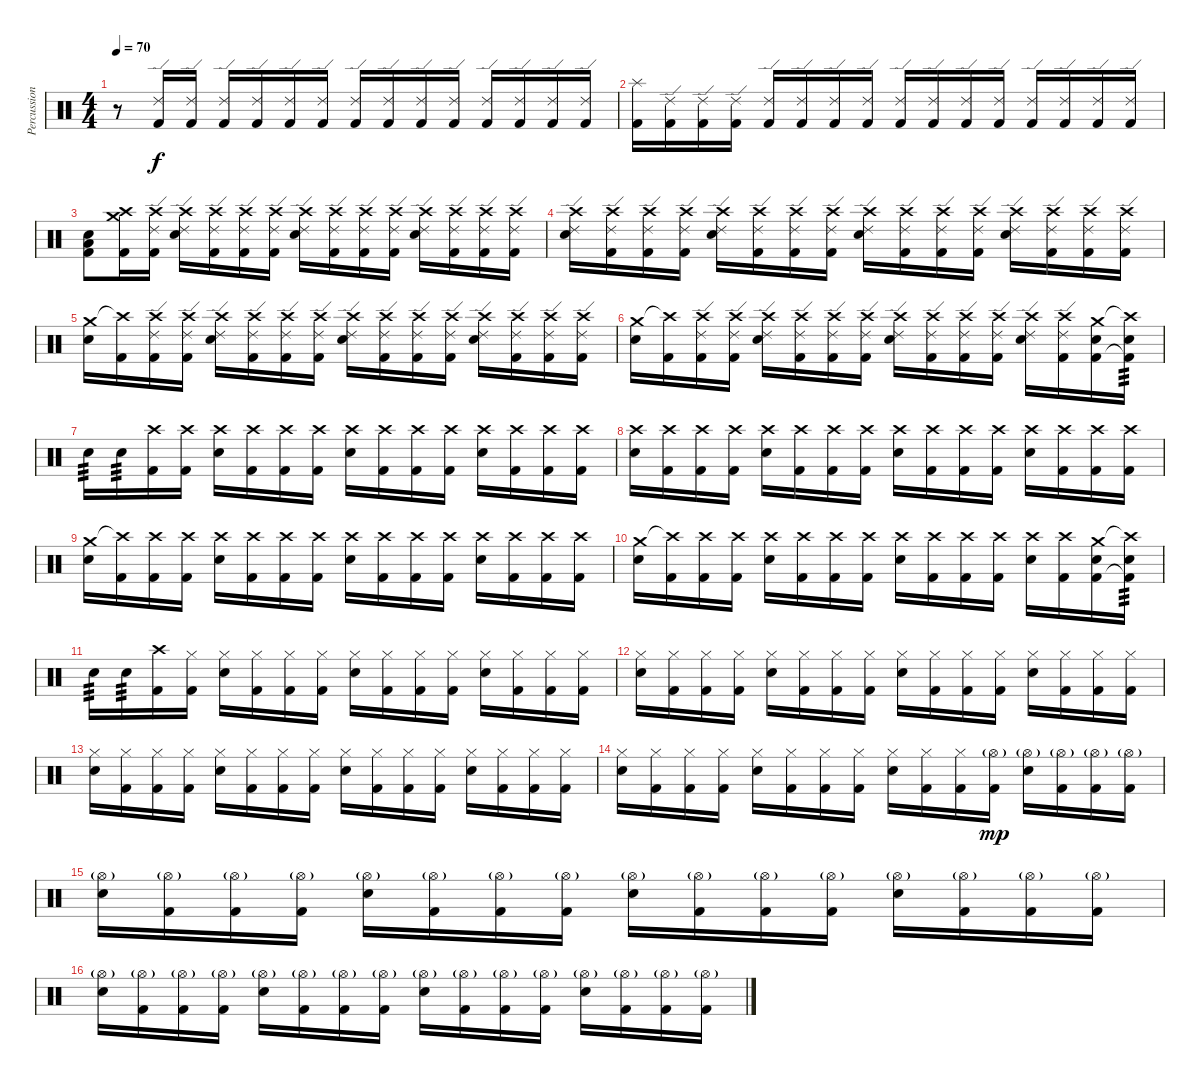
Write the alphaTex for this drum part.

\track ("Percussion" "Percussion") {instrument percussion}
\staff {score}
\articulation defaults
\ts (4 4)
\tempo 70
\clef neutral
\ks c
r.8{dy f} ("Ride (edge) 2" "Kick (hit) 2").16 ("Ride (edge) 2" "Kick (hit) 2").16 ("Ride (edge) 2" "Kick (hit) 2").16 ("Ride (edge) 2" "Kick (hit) 2").16 ("Ride (edge) 2" "Kick (hit) 2").16 ("Ride (edge) 2" "Kick (hit) 2").16 ("Ride (edge) 2" "Kick (hit) 2").16 ("Ride (edge) 2" "Kick (hit) 2").16 ("Ride (edge) 2" "Kick (hit) 2").16 ("Ride (edge) 2" "Kick (hit) 2").16 ("Ride (edge) 2" "Kick (hit) 2").16 ("Ride (edge) 2" "Kick (hit) 2").16 ("Ride (edge) 2" "Kick (hit) 2").16 ("Ride (edge) 2" "Kick (hit) 2").16 |
("Splash (hit)" "Kick (hit) 2").16 ("Ride (edge) 2" "Kick (hit) 2").16 ("Ride (edge) 2" "Kick (hit) 2").16 ("Ride (edge) 2" "Kick (hit) 2").16 ("Ride (edge) 2" "Kick (hit) 2").16 ("Ride (edge) 2" "Kick (hit) 2").16 ("Ride (edge) 2" "Kick (hit) 2").16 ("Ride (edge) 2" "Kick (hit) 2").16 ("Ride (edge) 2" "Kick (hit) 2").16 ("Ride (edge) 2" "Kick (hit) 2").16 ("Ride (edge) 2" "Kick (hit) 2").16 ("Ride (edge) 2" "Kick (hit) 2").16 ("Ride (edge) 2" "Kick (hit) 2").16 ("Ride (edge) 2" "Kick (hit) 2").16 ("Ride (edge) 2" "Kick (hit) 2").16 ("Ride (edge) 2" "Kick (hit) 2").16 |
("Low Floor Tom (hit)" "Electric Snare (hit)" "Kick (hit) 2").8 ("Crash high (hit)" "Crash medium (hit)" "Kick (hit) 2").16 ("Crash high (hit)" "Ride (edge) 2" "Kick (hit) 2").16 ("Crash high (hit)" "Ride (edge) 2" "Electric Snare (hit)").16 ("Crash high (hit)" "Ride (edge) 2" "Kick (hit) 2").16 ("Crash high (hit)" "Ride (edge) 2" "Kick (hit) 2").16 ("Crash high (hit)" "Ride (edge) 2" "Kick (hit) 2").16 ("Crash high (hit)" "Ride (edge) 2" "Electric Snare (hit)").16 ("Crash high (hit)" "Ride (edge) 2" "Kick (hit) 2").16 ("Crash high (hit)" "Ride (edge) 2" "Kick (hit) 2").16 ("Crash high (hit)" "Ride (edge) 2" "Kick (hit) 2").16 ("Crash high (hit)" "Ride (edge) 2" "Electric Snare (hit)").16 ("Crash high (hit)" "Ride (edge) 2" "Kick (hit) 2").16 ("Crash high (hit)" "Ride (edge) 2" "Kick (hit) 2").16 ("Crash high (hit)" "Ride (edge) 2" "Kick (hit) 2").16 |
("Crash high (hit)" "Ride (edge) 2" "Electric Snare (hit)").16 ("Crash high (hit)" "Ride (edge) 2" "Kick (hit) 2").16 ("Crash high (hit)" "Ride (edge) 2" "Kick (hit) 2").16 ("Crash high (hit)" "Ride (edge) 2" "Kick (hit) 2").16 ("Crash high (hit)" "Ride (edge) 2" "Electric Snare (hit)").16 ("Crash high (hit)" "Ride (edge) 2" "Kick (hit) 2").16 ("Crash high (hit)" "Ride (edge) 2" "Kick (hit) 2").16 ("Crash high (hit)" "Ride (edge) 2" "Kick (hit) 2").16 ("Crash high (hit)" "Ride (edge) 2" "Electric Snare (hit)").16 ("Crash high (hit)" "Ride (edge) 2" "Kick (hit) 2").16 ("Crash high (hit)" "Ride (edge) 2" "Kick (hit) 2").16 ("Crash high (hit)" "Ride (edge) 2" "Kick (hit) 2").16 ("Crash high (hit)" "Ride (edge) 2" "Electric Snare (hit)").16 ("Crash high (hit)" "Ride (edge) 2" "Kick (hit) 2").16 ("Crash high (hit)" "Ride (edge) 2" "Kick (hit) 2").16 ("Crash high (hit)" "Ride (edge) 2" "Kick (hit) 2").16 |
("Crash medium (hit)" "Electric Snare (hit)").16 ("Crash high (hit)"{t} "Kick (hit) 2").16 ("Crash high (hit)" "Ride (edge) 2" "Kick (hit) 2").16 ("Crash high (hit)" "Ride (edge) 2" "Kick (hit) 2").16 ("Crash high (hit)" "Ride (edge) 2" "Electric Snare (hit)").16 ("Crash high (hit)" "Ride (edge) 2" "Kick (hit) 2").16 ("Crash high (hit)" "Ride (edge) 2" "Kick (hit) 2").16 ("Crash high (hit)" "Ride (edge) 2" "Kick (hit) 2").16 ("Crash high (hit)" "Ride (edge) 2" "Electric Snare (hit)").16 ("Crash high (hit)" "Ride (edge) 2" "Kick (hit) 2").16 ("Crash high (hit)" "Ride (edge) 2" "Kick (hit) 2").16 ("Crash high (hit)" "Ride (edge) 2" "Kick (hit) 2").16 ("Crash high (hit)" "Ride (edge) 2" "Electric Snare (hit)").16 ("Crash high (hit)" "Ride (edge) 2" "Kick (hit) 2").16 ("Crash high (hit)" "Ride (edge) 2" "Kick (hit) 2").16 ("Crash high (hit)" "Ride (edge) 2" "Kick (hit) 2").16 |
("Crash medium (hit)" "Electric Snare (hit)").16 ("Crash high (hit)"{t} "Kick (hit) 2").16 ("Crash high (hit)" "Ride (edge) 2" "Kick (hit) 2").16 ("Crash high (hit)" "Ride (edge) 2" "Kick (hit) 2").16 ("Crash high (hit)" "Ride (edge) 2" "Electric Snare (hit)").16 ("Crash high (hit)" "Ride (edge) 2" "Kick (hit) 2").16 ("Crash high (hit)" "Ride (edge) 2" "Kick (hit) 2").16 ("Crash high (hit)" "Ride (edge) 2" "Kick (hit) 2").16 ("Crash high (hit)" "Ride (edge) 2" "Electric Snare (hit)").16 ("Crash high (hit)" "Ride (edge) 2" "Kick (hit) 2").16 ("Crash high (hit)" "Ride (edge) 2" "Kick (hit) 2").16 ("Crash high (hit)" "Ride (edge) 2" "Kick (hit) 2").16 ("Crash high (hit)" "Ride (edge) 2" "Electric Snare (hit)").16 ("Crash high (hit)" "Ride (edge) 2" "Kick (hit) 2").16 ("Crash medium (hit)" "Electric Snare (hit)" "Kick (hit) 2").16 ("Crash high (hit)"{t} "Electric Snare (hit)" "Kick (hit) 2"{t}).16{tp 3} |
"Electric Snare (hit)".16{tp 3} "Electric Snare (hit)".16{tp 3} ("Crash high (hit)" "Kick (hit) 2").16 ("Crash high (hit)" "Kick (hit) 2").16 ("Crash high (hit)" "Electric Snare (hit)").16 ("Crash high (hit)" "Kick (hit) 2").16 ("Crash high (hit)" "Kick (hit) 2").16 ("Crash high (hit)" "Kick (hit) 2").16 ("Crash high (hit)" "Electric Snare (hit)").16 ("Crash high (hit)" "Kick (hit) 2").16 ("Crash high (hit)" "Kick (hit) 2").16 ("Crash high (hit)" "Kick (hit) 2").16 ("Crash high (hit)" "Electric Snare (hit)").16 ("Crash high (hit)" "Kick (hit) 2").16 ("Crash high (hit)" "Kick (hit) 2").16 ("Crash high (hit)" "Kick (hit) 2").16 |
("Crash high (hit)" "Electric Snare (hit)").16 ("Crash high (hit)" "Kick (hit) 2").16 ("Crash high (hit)" "Kick (hit) 2").16 ("Crash high (hit)" "Kick (hit) 2").16 ("Crash high (hit)" "Electric Snare (hit)").16 ("Crash high (hit)" "Kick (hit) 2").16 ("Crash high (hit)" "Kick (hit) 2").16 ("Crash high (hit)" "Kick (hit) 2").16 ("Crash high (hit)" "Electric Snare (hit)").16 ("Crash high (hit)" "Kick (hit) 2").16 ("Crash high (hit)" "Kick (hit) 2").16 ("Crash high (hit)" "Kick (hit) 2").16 ("Crash high (hit)" "Electric Snare (hit)").16 ("Crash high (hit)" "Kick (hit) 2").16 ("Crash high (hit)" "Kick (hit) 2").16 ("Crash high (hit)" "Kick (hit) 2").16 |
("Crash medium (hit)" "Electric Snare (hit)").16 ("Crash high (hit)"{t} "Kick (hit) 2").16 ("Crash high (hit)" "Kick (hit) 2").16 ("Crash high (hit)" "Kick (hit) 2").16 ("Crash high (hit)" "Electric Snare (hit)").16 ("Crash high (hit)" "Kick (hit) 2").16 ("Crash high (hit)" "Kick (hit) 2").16 ("Crash high (hit)" "Kick (hit) 2").16 ("Crash high (hit)" "Electric Snare (hit)").16 ("Crash high (hit)" "Kick (hit) 2").16 ("Crash high (hit)" "Kick (hit) 2").16 ("Crash high (hit)" "Kick (hit) 2").16 ("Crash high (hit)" "Electric Snare (hit)").16 ("Crash high (hit)" "Kick (hit) 2").16 ("Crash high (hit)" "Kick (hit) 2").16 ("Crash high (hit)" "Kick (hit) 2").16 |
("Crash medium (hit)" "Electric Snare (hit)").16 ("Crash high (hit)"{t} "Kick (hit) 2").16 ("Crash high (hit)" "Kick (hit) 2").16 ("Crash high (hit)" "Kick (hit) 2").16 ("Crash high (hit)" "Electric Snare (hit)").16 ("Crash high (hit)" "Kick (hit) 2").16 ("Crash high (hit)" "Kick (hit) 2").16 ("Crash high (hit)" "Kick (hit) 2").16 ("Crash high (hit)" "Electric Snare (hit)").16 ("Crash high (hit)" "Kick (hit) 2").16 ("Crash high (hit)" "Kick (hit) 2").16 ("Crash high (hit)" "Kick (hit) 2").16 ("Crash high (hit)" "Electric Snare (hit)").16 ("Crash high (hit)" "Kick (hit) 2").16 ("Crash medium (hit)" "Electric Snare (hit)" "Kick (hit) 2").16 ("Crash high (hit)"{t} "Electric Snare (hit)" "Kick (hit) 2"{t}).16{tp 3} |
"Electric Snare (hit)".16{tp 3} "Electric Snare (hit)".16{tp 3} ("Crash high (hit)" "Kick (hit) 2").16 ("Hi-Hat (closed)" "Kick (hit) 2").16 ("Hi-Hat (closed)" "Electric Snare (hit)").16 ("Hi-Hat (closed)" "Kick (hit) 2").16 ("Hi-Hat (closed)" "Kick (hit) 2").16 ("Hi-Hat (closed)" "Kick (hit) 2").16 ("Hi-Hat (closed)" "Electric Snare (hit)").16 ("Hi-Hat (closed)" "Kick (hit) 2").16 ("Hi-Hat (closed)" "Kick (hit) 2").16 ("Hi-Hat (closed)" "Kick (hit) 2").16 ("Hi-Hat (closed)" "Electric Snare (hit)").16 ("Hi-Hat (closed)" "Kick (hit) 2").16 ("Hi-Hat (closed)" "Kick (hit) 2").16 ("Hi-Hat (closed)" "Kick (hit) 2").16 |
("Hi-Hat (closed)" "Electric Snare (hit)").16 ("Hi-Hat (closed)" "Kick (hit) 2").16 ("Hi-Hat (closed)" "Kick (hit) 2").16 ("Hi-Hat (closed)" "Kick (hit) 2").16 ("Hi-Hat (closed)" "Electric Snare (hit)").16 ("Hi-Hat (closed)" "Kick (hit) 2").16 ("Hi-Hat (closed)" "Kick (hit) 2").16 ("Hi-Hat (closed)" "Kick (hit) 2").16 ("Hi-Hat (closed)" "Electric Snare (hit)").16 ("Hi-Hat (closed)" "Kick (hit) 2").16 ("Hi-Hat (closed)" "Kick (hit) 2").16 ("Hi-Hat (closed)" "Kick (hit) 2").16 ("Hi-Hat (closed)" "Electric Snare (hit)").16 ("Hi-Hat (closed)" "Kick (hit) 2").16 ("Hi-Hat (closed)" "Kick (hit) 2").16 ("Hi-Hat (closed)" "Kick (hit) 2").16 |
("Hi-Hat (closed)" "Electric Snare (hit)").16 ("Hi-Hat (closed)" "Kick (hit) 2").16 ("Hi-Hat (closed)" "Kick (hit) 2").16 ("Hi-Hat (closed)" "Kick (hit) 2").16 ("Hi-Hat (closed)" "Electric Snare (hit)").16 ("Hi-Hat (closed)" "Kick (hit) 2").16 ("Hi-Hat (closed)" "Kick (hit) 2").16 ("Hi-Hat (closed)" "Kick (hit) 2").16 ("Hi-Hat (closed)" "Electric Snare (hit)").16 ("Hi-Hat (closed)" "Kick (hit) 2").16 ("Hi-Hat (closed)" "Kick (hit) 2").16 ("Hi-Hat (closed)" "Kick (hit) 2").16 ("Hi-Hat (closed)" "Electric Snare (hit)").16 ("Hi-Hat (closed)" "Kick (hit) 2").16 ("Hi-Hat (closed)" "Kick (hit) 2").16 ("Hi-Hat (closed)" "Kick (hit) 2").16 |
("Hi-Hat (closed)" "Electric Snare (hit)").16 ("Hi-Hat (closed)" "Kick (hit) 2").16 ("Hi-Hat (closed)" "Kick (hit) 2").16 ("Hi-Hat (closed)" "Kick (hit) 2").16 ("Hi-Hat (closed)" "Electric Snare (hit)").16 ("Hi-Hat (closed)" "Kick (hit) 2").16 ("Hi-Hat (closed)" "Kick (hit) 2").16 ("Hi-Hat (closed)" "Kick (hit) 2").16 ("Hi-Hat (closed)" "Electric Snare (hit)").16 ("Hi-Hat (closed)" "Kick (hit) 2").16 ("Hi-Hat (closed)" "Kick (hit) 2").16 ("Hi-Hat (open)"{g} "Kick (hit) 2").16{dy mp} ("Hi-Hat (open)"{g} "Electric Snare (hit)").16 ("Hi-Hat (open)"{g} "Kick (hit) 2").16 ("Hi-Hat (open)"{g} "Kick (hit) 2").16 ("Hi-Hat (open)"{g} "Kick (hit) 2").16 |
("Hi-Hat (open)"{g} "Electric Snare (hit)").16 ("Hi-Hat (open)"{g} "Kick (hit) 2").16 ("Hi-Hat (open)"{g} "Kick (hit) 2").16 ("Hi-Hat (open)"{g} "Kick (hit) 2").16 ("Hi-Hat (open)"{g} "Electric Snare (hit)").16 ("Hi-Hat (open)"{g} "Kick (hit) 2").16 ("Hi-Hat (open)"{g} "Kick (hit) 2").16 ("Hi-Hat (open)"{g} "Kick (hit) 2").16 ("Hi-Hat (open)"{g} "Electric Snare (hit)").16 ("Hi-Hat (open)"{g} "Kick (hit) 2").16 ("Hi-Hat (open)"{g} "Kick (hit) 2").16 ("Hi-Hat (open)"{g} "Kick (hit) 2").16 ("Hi-Hat (open)"{g} "Electric Snare (hit)").16 ("Hi-Hat (open)"{g} "Kick (hit) 2").16 ("Hi-Hat (open)"{g} "Kick (hit) 2").16 ("Hi-Hat (open)"{g} "Kick (hit) 2").16 |
("Hi-Hat (open)"{g} "Electric Snare (hit)").16 ("Hi-Hat (open)"{g} "Kick (hit) 2").16 ("Hi-Hat (open)"{g} "Kick (hit) 2").16 ("Hi-Hat (open)"{g} "Kick (hit) 2").16 ("Hi-Hat (open)"{g} "Electric Snare (hit)").16 ("Hi-Hat (open)"{g} "Kick (hit) 2").16 ("Hi-Hat (open)"{g} "Kick (hit) 2").16 ("Hi-Hat (open)"{g} "Kick (hit) 2").16 ("Hi-Hat (open)"{g} "Electric Snare (hit)").16 ("Hi-Hat (open)"{g} "Kick (hit) 2").16 ("Hi-Hat (open)"{g} "Kick (hit) 2").16 ("Hi-Hat (open)"{g} "Kick (hit) 2").16 ("Hi-Hat (open)"{g} "Electric Snare (hit)").16 ("Hi-Hat (open)"{g} "Kick (hit) 2").16 ("Hi-Hat (open)"{g} "Kick (hit) 2").16 ("Hi-Hat (open)"{g} "Kick (hit) 2").16
